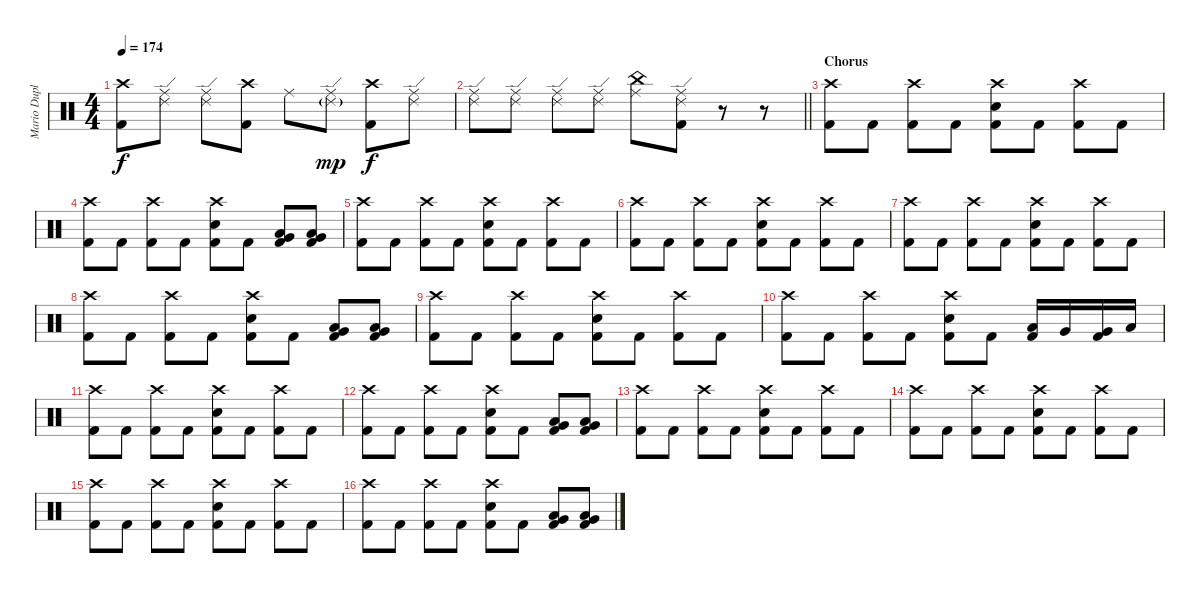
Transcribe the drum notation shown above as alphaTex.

\track ("Mario Duplantier - DRUMS" "Mario Dupl") {instrument percussion}
\staff {score}
\articulation defaults
\ts (4 4)
\tempo 174
\clef neutral
\ks c
("Crash high (hit)" "Kick (hit) 2").8{dy f} ("Ride (middle)" "Ride (edge) 2").8 ("Ride (middle)" "Ride (edge) 2").8 ("Crash high (hit)" "Kick (hit) 2").8 "Ride (middle)".8 ("Ride (middle)" "Ride (edge) 2"{g}).8{dy mp} ("Crash high (hit)" "Kick (hit) 2").8{dy f} ("Ride (middle)" "Ride (edge) 2").8 |
\barLineRight lightlight
("Ride (middle)" "Ride (edge) 2").8 ("Ride (middle)" "Ride (edge) 2").8 ("Ride (middle)" "Ride (edge) 2").8 ("Ride (middle)" "Ride (edge) 2").8 ("Ride (middle)" "China (hit)").8 ("Ride (middle)" "Ride (edge) 2" "Kick (hit) 2").8 r.8 r.8 |
\section ("" "Chorus")
("Crash high (hit)" "Kick (hit) 2").8 "Kick (hit) 2".8 ("Crash high (hit)" "Kick (hit) 2").8 "Kick (hit) 2".8 ("Crash high (hit)" "Electric Snare (hit)" "Kick (hit) 2").8 "Kick (hit) 2".8 ("Crash high (hit)" "Kick (hit) 2").8 "Kick (hit) 2".8 |
("Crash high (hit)" "Kick (hit) 2").8 "Kick (hit) 2".8 ("Crash high (hit)" "Kick (hit) 2").8 "Kick (hit) 2".8 ("Crash high (hit)" "Electric Snare (hit)" "Kick (hit) 2").8 "Kick (hit) 2".8 ("Low Tom (hit)" "Very Low Tom (hit)" "Kick (hit) 2").8 ("Low Floor Tom (hit)" "Very Low Tom (hit)" "Kick (hit) 2").8 |
("Crash high (hit)" "Kick (hit) 2").8 "Kick (hit) 2".8 ("Crash high (hit)" "Kick (hit) 2").8 "Kick (hit) 2".8 ("Crash high (hit)" "Electric Snare (hit)" "Kick (hit) 2").8 "Kick (hit) 2".8 ("Crash high (hit)" "Kick (hit) 2").8 "Kick (hit) 2".8 |
("Crash high (hit)" "Kick (hit) 2").8 "Kick (hit) 2".8 ("Crash high (hit)" "Kick (hit) 2").8 "Kick (hit) 2".8 ("Crash high (hit)" "Electric Snare (hit)" "Kick (hit) 2").8 "Kick (hit) 2".8 ("Crash high (hit)" "Kick (hit) 2").8 "Kick (hit) 2".8 |
("Crash high (hit)" "Kick (hit) 2").8 "Kick (hit) 2".8 ("Crash high (hit)" "Kick (hit) 2").8 "Kick (hit) 2".8 ("Crash high (hit)" "Electric Snare (hit)" "Kick (hit) 2").8 "Kick (hit) 2".8 ("Crash high (hit)" "Kick (hit) 2").8 "Kick (hit) 2".8 |
("Crash high (hit)" "Kick (hit) 2").8 "Kick (hit) 2".8 ("Crash high (hit)" "Kick (hit) 2").8 "Kick (hit) 2".8 ("Crash high (hit)" "Electric Snare (hit)" "Kick (hit) 2").8 "Kick (hit) 2".8 ("Low Tom (hit)" "Very Low Tom (hit)" "Kick (hit) 2").8 ("Low Floor Tom (hit)" "Very Low Tom (hit)" "Kick (hit) 2").8 |
("Crash high (hit)" "Kick (hit) 2").8 "Kick (hit) 2".8 ("Crash high (hit)" "Kick (hit) 2").8 "Kick (hit) 2".8 ("Crash high (hit)" "Electric Snare (hit)" "Kick (hit) 2").8 "Kick (hit) 2".8 ("Crash high (hit)" "Kick (hit) 2").8 "Kick (hit) 2".8 |
("Crash high (hit)" "Kick (hit) 2").8 "Kick (hit) 2".8 ("Crash high (hit)" "Kick (hit) 2").8 "Kick (hit) 2".8 ("Crash high (hit)" "Electric Snare (hit)" "Kick (hit) 2").8 "Kick (hit) 2".8 ("Low Tom (hit)" "Kick (hit) 2").16 "Very Low Tom (hit)".16 ("Very Low Tom (hit)" "Kick (hit) 2").16 "Low Floor Tom (hit)".16 |
("Crash high (hit)" "Kick (hit) 2").8 "Kick (hit) 2".8 ("Crash high (hit)" "Kick (hit) 2").8 "Kick (hit) 2".8 ("Crash high (hit)" "Electric Snare (hit)" "Kick (hit) 2").8 "Kick (hit) 2".8 ("Crash high (hit)" "Kick (hit) 2").8 "Kick (hit) 2".8 |
("Crash high (hit)" "Kick (hit) 2").8 "Kick (hit) 2".8 ("Crash high (hit)" "Kick (hit) 2").8 "Kick (hit) 2".8 ("Crash high (hit)" "Electric Snare (hit)" "Kick (hit) 2").8 "Kick (hit) 2".8 ("Low Tom (hit)" "Very Low Tom (hit)" "Kick (hit) 2").8 ("Low Floor Tom (hit)" "Very Low Tom (hit)" "Kick (hit) 2").8 |
("Crash high (hit)" "Kick (hit) 2").8 "Kick (hit) 2".8 ("Crash high (hit)" "Kick (hit) 2").8 "Kick (hit) 2".8 ("Crash high (hit)" "Electric Snare (hit)" "Kick (hit) 2").8 "Kick (hit) 2".8 ("Crash high (hit)" "Kick (hit) 2").8 "Kick (hit) 2".8 |
("Crash high (hit)" "Kick (hit) 2").8 "Kick (hit) 2".8 ("Crash high (hit)" "Kick (hit) 2").8 "Kick (hit) 2".8 ("Crash high (hit)" "Electric Snare (hit)" "Kick (hit) 2").8 "Kick (hit) 2".8 ("Crash high (hit)" "Kick (hit) 2").8 "Kick (hit) 2".8 |
("Crash high (hit)" "Kick (hit) 2").8 "Kick (hit) 2".8 ("Crash high (hit)" "Kick (hit) 2").8 "Kick (hit) 2".8 ("Crash high (hit)" "Electric Snare (hit)" "Kick (hit) 2").8 "Kick (hit) 2".8 ("Crash high (hit)" "Kick (hit) 2").8 "Kick (hit) 2".8 |
("Crash high (hit)" "Kick (hit) 2").8 "Kick (hit) 2".8 ("Crash high (hit)" "Kick (hit) 2").8 "Kick (hit) 2".8 ("Crash high (hit)" "Electric Snare (hit)" "Kick (hit) 2").8 "Kick (hit) 2".8 ("Low Tom (hit)" "Very Low Tom (hit)" "Kick (hit) 2").8 ("Low Floor Tom (hit)" "Very Low Tom (hit)" "Kick (hit) 2").8
